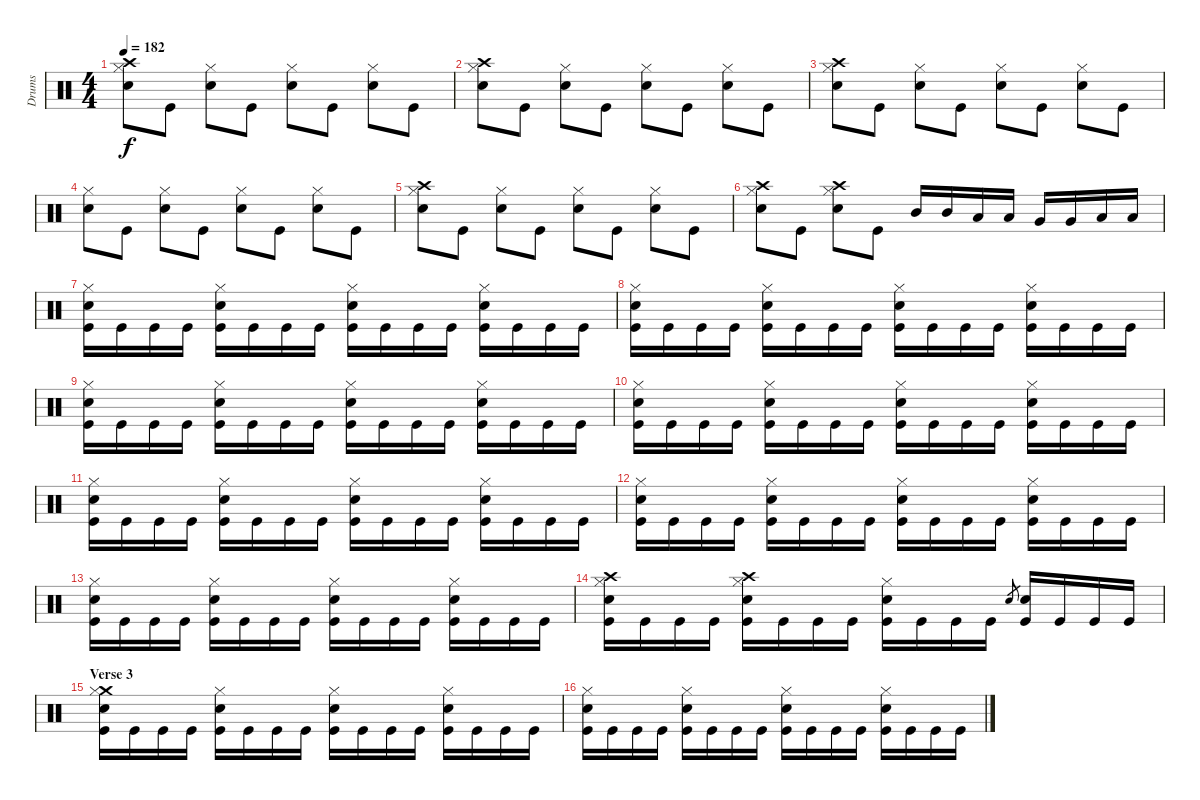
\track ("Drums" "Drums") {instrument percussion}
\staff {score}
\articulation defaults
\ts (4 4)
\tempo 182
\clef neutral
\ks c
("Crash high (hit)" "Hi-Hat (closed)" "Snare (hit) 2").8{dy f} "Kick (hit)".8 ("Hi-Hat (closed)" "Snare (hit) 2").8 "Kick (hit)".8 ("Hi-Hat (closed)" "Snare (hit) 2").8 "Kick (hit)".8 ("Hi-Hat (closed)" "Snare (hit) 2").8 "Kick (hit)".8 |
("Crash high (hit)" "Hi-Hat (closed)" "Snare (hit) 2").8 "Kick (hit)".8 ("Hi-Hat (closed)" "Snare (hit) 2").8 "Kick (hit)".8 ("Hi-Hat (closed)" "Snare (hit) 2").8 "Kick (hit)".8 ("Hi-Hat (closed)" "Snare (hit) 2").8 "Kick (hit)".8 |
("Crash high (hit)" "Hi-Hat (closed)" "Snare (hit) 2").8 "Kick (hit)".8 ("Hi-Hat (closed)" "Snare (hit) 2").8 "Kick (hit)".8 ("Hi-Hat (closed)" "Snare (hit) 2").8 "Kick (hit)".8 ("Hi-Hat (closed)" "Snare (hit) 2").8 "Kick (hit)".8 |
("Hi-Hat (closed)" "Snare (hit) 2").8 "Kick (hit)".8 ("Hi-Hat (closed)" "Snare (hit) 2").8 "Kick (hit)".8 ("Hi-Hat (closed)" "Snare (hit) 2").8 "Kick (hit)".8 ("Hi-Hat (closed)" "Snare (hit) 2").8 "Kick (hit)".8 |
("Crash high (hit)" "Hi-Hat (closed)" "Snare (hit) 2").8 "Kick (hit)".8 ("Hi-Hat (closed)" "Snare (hit) 2").8 "Kick (hit)".8 ("Hi-Hat (closed)" "Snare (hit) 2").8 "Kick (hit)".8 ("Hi-Hat (closed)" "Snare (hit) 2").8 "Kick (hit)".8 |
("Crash high (hit)" "Hi-Hat (closed)" "Snare (hit) 2").8 "Kick (hit)".8 ("Crash high (hit)" "Hi-Hat (closed)" "Snare (hit) 2").8 "Kick (hit)".8 "Mid Tom (hit)".16 "Mid Tom (hit)".16 "Low Tom (hit)".16 "Low Tom (hit)".16 "Very Low Tom (hit)".16 "Very Low Tom (hit)".16 "Low Floor Tom (hit)".16 "Low Floor Tom (hit)".16 |
("Hi-Hat (closed)" "Snare (hit) 2" "Kick (hit)").16 "Kick (hit)".16 "Kick (hit)".16 "Kick (hit)".16 ("Hi-Hat (closed)" "Snare (hit) 2" "Kick (hit)").16 "Kick (hit)".16 "Kick (hit)".16 "Kick (hit)".16 ("Hi-Hat (closed)" "Snare (hit) 2" "Kick (hit)").16 "Kick (hit)".16 "Kick (hit)".16 "Kick (hit)".16 ("Hi-Hat (closed)" "Snare (hit) 2" "Kick (hit)").16 "Kick (hit)".16 "Kick (hit)".16 "Kick (hit)".16 |
("Hi-Hat (closed)" "Snare (hit) 2" "Kick (hit)").16 "Kick (hit)".16 "Kick (hit)".16 "Kick (hit)".16 ("Hi-Hat (closed)" "Snare (hit) 2" "Kick (hit)").16 "Kick (hit)".16 "Kick (hit)".16 "Kick (hit)".16 ("Hi-Hat (closed)" "Snare (hit) 2" "Kick (hit)").16 "Kick (hit)".16 "Kick (hit)".16 "Kick (hit)".16 ("Hi-Hat (closed)" "Snare (hit) 2" "Kick (hit)").16 "Kick (hit)".16 "Kick (hit)".16 "Kick (hit)".16 |
("Hi-Hat (closed)" "Snare (hit) 2" "Kick (hit)").16 "Kick (hit)".16 "Kick (hit)".16 "Kick (hit)".16 ("Hi-Hat (closed)" "Snare (hit) 2" "Kick (hit)").16 "Kick (hit)".16 "Kick (hit)".16 "Kick (hit)".16 ("Hi-Hat (closed)" "Snare (hit) 2" "Kick (hit)").16 "Kick (hit)".16 "Kick (hit)".16 "Kick (hit)".16 ("Hi-Hat (closed)" "Snare (hit) 2" "Kick (hit)").16 "Kick (hit)".16 "Kick (hit)".16 "Kick (hit)".16 |
("Hi-Hat (closed)" "Snare (hit) 2" "Kick (hit)").16 "Kick (hit)".16 "Kick (hit)".16 "Kick (hit)".16 ("Hi-Hat (closed)" "Snare (hit) 2" "Kick (hit)").16 "Kick (hit)".16 "Kick (hit)".16 "Kick (hit)".16 ("Hi-Hat (closed)" "Snare (hit) 2" "Kick (hit)").16 "Kick (hit)".16 "Kick (hit)".16 "Kick (hit)".16 ("Hi-Hat (closed)" "Snare (hit) 2" "Kick (hit)").16 "Kick (hit)".16 "Kick (hit)".16 "Kick (hit)".16 |
("Hi-Hat (closed)" "Snare (hit) 2" "Kick (hit)").16 "Kick (hit)".16 "Kick (hit)".16 "Kick (hit)".16 ("Hi-Hat (closed)" "Snare (hit) 2" "Kick (hit)").16 "Kick (hit)".16 "Kick (hit)".16 "Kick (hit)".16 ("Hi-Hat (closed)" "Snare (hit) 2" "Kick (hit)").16 "Kick (hit)".16 "Kick (hit)".16 "Kick (hit)".16 ("Hi-Hat (closed)" "Snare (hit) 2" "Kick (hit)").16 "Kick (hit)".16 "Kick (hit)".16 "Kick (hit)".16 |
("Hi-Hat (closed)" "Snare (hit) 2" "Kick (hit)").16 "Kick (hit)".16 "Kick (hit)".16 "Kick (hit)".16 ("Hi-Hat (closed)" "Snare (hit) 2" "Kick (hit)").16 "Kick (hit)".16 "Kick (hit)".16 "Kick (hit)".16 ("Hi-Hat (closed)" "Snare (hit) 2" "Kick (hit)").16 "Kick (hit)".16 "Kick (hit)".16 "Kick (hit)".16 ("Hi-Hat (closed)" "Snare (hit) 2" "Kick (hit)").16 "Kick (hit)".16 "Kick (hit)".16 "Kick (hit)".16 |
("Hi-Hat (closed)" "Snare (hit) 2" "Kick (hit)").16 "Kick (hit)".16 "Kick (hit)".16 "Kick (hit)".16 ("Hi-Hat (closed)" "Snare (hit) 2" "Kick (hit)").16 "Kick (hit)".16 "Kick (hit)".16 "Kick (hit)".16 ("Hi-Hat (closed)" "Snare (hit) 2" "Kick (hit)").16 "Kick (hit)".16 "Kick (hit)".16 "Kick (hit)".16 ("Hi-Hat (closed)" "Snare (hit) 2" "Kick (hit)").16 "Kick (hit)".16 "Kick (hit)".16 "Kick (hit)".16 |
("Crash high (hit)" "Hi-Hat (closed)" "Snare (hit) 2" "Kick (hit)").16 "Kick (hit)".16 "Kick (hit)".16 "Kick (hit)".16 ("Crash high (hit)" "Hi-Hat (closed)" "Snare (hit) 2" "Kick (hit)").16 "Kick (hit)".16 "Kick (hit)".16 "Kick (hit)".16 ("Hi-Hat (closed)" "Snare (hit) 2" "Kick (hit)").16 "Kick (hit)".16 "Kick (hit)".16 "Kick (hit)".16 "Snare (hit) 2".8{gr} ("Snare (hit) 2" "Kick (hit)").16 "Kick (hit)".16 "Kick (hit)".16 "Kick (hit)".16 |
\section ("" "Verse 3")
("Crash medium (hit)" "Hi-Hat (closed)" "Snare (hit) 2" "Kick (hit)").16 "Kick (hit)".16 "Kick (hit)".16 "Kick (hit)".16 ("Hi-Hat (closed)" "Snare (hit) 2" "Kick (hit)").16 "Kick (hit)".16 "Kick (hit)".16 "Kick (hit)".16 ("Hi-Hat (closed)" "Snare (hit) 2" "Kick (hit)").16 "Kick (hit)".16 "Kick (hit)".16 "Kick (hit)".16 ("Hi-Hat (closed)" "Snare (hit) 2" "Kick (hit)").16 "Kick (hit)".16 "Kick (hit)".16 "Kick (hit)".16 |
("Hi-Hat (closed)" "Snare (hit) 2" "Kick (hit)").16 "Kick (hit)".16 "Kick (hit)".16 "Kick (hit)".16 ("Hi-Hat (closed)" "Snare (hit) 2" "Kick (hit)").16 "Kick (hit)".16 "Kick (hit)".16 "Kick (hit)".16 ("Hi-Hat (closed)" "Snare (hit) 2" "Kick (hit)").16 "Kick (hit)".16 "Kick (hit)".16 "Kick (hit)".16 ("Hi-Hat (closed)" "Snare (hit) 2" "Kick (hit)").16 "Kick (hit)".16 "Kick (hit)".16 "Kick (hit)".16
